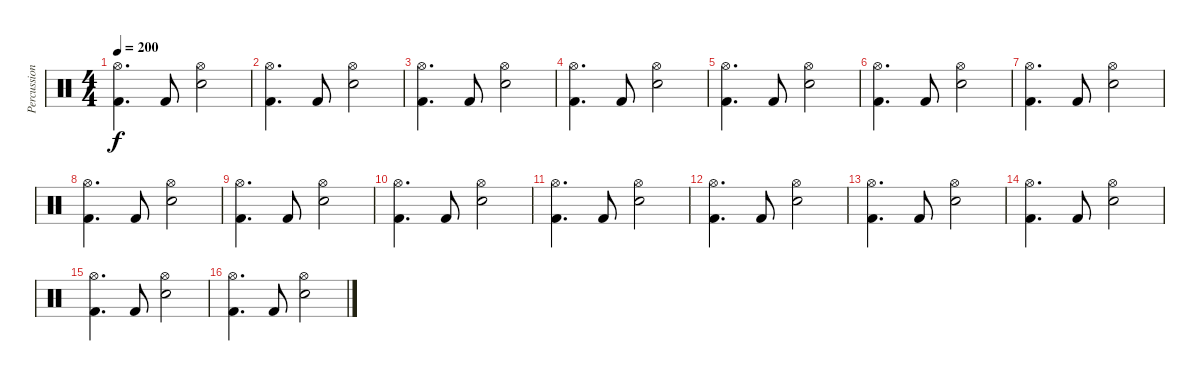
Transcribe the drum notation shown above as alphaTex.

\track ("Percussion" "Percussion") {instrument percussion}
\staff {score}
\articulation defaults
\ts (4 4)
\tempo 200
\clef neutral
\ks c
("Hi-Hat (open)" "Kick (hit) 2").4{d dy f} "Kick (hit) 2".8 ("Hi-Hat (open)" "Electric Snare (hit)").2 |
("Hi-Hat (open)" "Kick (hit) 2").4{d} "Kick (hit) 2".8 ("Hi-Hat (open)" "Electric Snare (hit)").2 |
("Hi-Hat (open)" "Kick (hit) 2").4{d} "Kick (hit) 2".8 ("Hi-Hat (open)" "Electric Snare (hit)").2 |
("Hi-Hat (open)" "Kick (hit) 2").4{d} "Kick (hit) 2".8 ("Hi-Hat (open)" "Electric Snare (hit)").2 |
("Hi-Hat (open)" "Kick (hit) 2").4{d} "Kick (hit) 2".8 ("Hi-Hat (open)" "Electric Snare (hit)").2 |
("Hi-Hat (open)" "Kick (hit) 2").4{d} "Kick (hit) 2".8 ("Hi-Hat (open)" "Electric Snare (hit)").2 |
("Hi-Hat (open)" "Kick (hit) 2").4{d} "Kick (hit) 2".8 ("Hi-Hat (open)" "Electric Snare (hit)").2 |
("Hi-Hat (open)" "Kick (hit) 2").4{d} "Kick (hit) 2".8 ("Hi-Hat (open)" "Electric Snare (hit)").2 |
("Hi-Hat (open)" "Kick (hit) 2").4{d} "Kick (hit) 2".8 ("Hi-Hat (open)" "Electric Snare (hit)").2 |
("Hi-Hat (open)" "Kick (hit) 2").4{d} "Kick (hit) 2".8 ("Hi-Hat (open)" "Electric Snare (hit)").2 |
("Hi-Hat (open)" "Kick (hit) 2").4{d} "Kick (hit) 2".8 ("Hi-Hat (open)" "Electric Snare (hit)").2 |
("Hi-Hat (open)" "Kick (hit) 2").4{d} "Kick (hit) 2".8 ("Hi-Hat (open)" "Electric Snare (hit)").2 |
("Hi-Hat (open)" "Kick (hit) 2").4{d} "Kick (hit) 2".8 ("Hi-Hat (open)" "Electric Snare (hit)").2 |
("Hi-Hat (open)" "Kick (hit) 2").4{d} "Kick (hit) 2".8 ("Hi-Hat (open)" "Electric Snare (hit)").2 |
("Hi-Hat (open)" "Kick (hit) 2").4{d} "Kick (hit) 2".8 ("Hi-Hat (open)" "Electric Snare (hit)").2 |
("Hi-Hat (open)" "Kick (hit) 2").4{d} "Kick (hit) 2".8 ("Hi-Hat (open)" "Electric Snare (hit)").2
